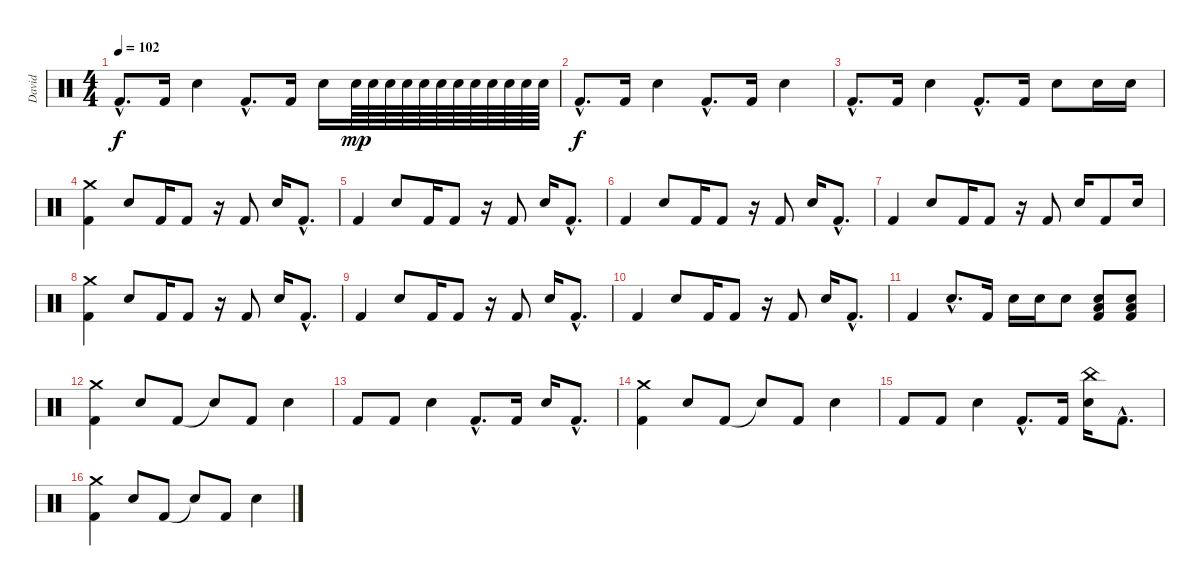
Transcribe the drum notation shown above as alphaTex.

\track ("David" "David") {instrument percussion}
\staff {score}
\articulation defaults
\ts (4 4)
\tempo 102
\clef neutral
\ks c "Kick (hit) 2"{hac}.8{d dy f} "Kick (hit) 2".16 "Snare (hit) 2".4 "Kick (hit) 2"{hac}.8{d} "Kick (hit) 2".16 "Snare (hit) 2".16 "Snare (hit) 2".64{dy mp} "Snare (hit) 2".64 "Snare (hit) 2".64 "Snare (hit) 2".64 "Snare (hit) 2".64 "Snare (hit) 2".64 "Snare (hit) 2".64 "Snare (hit) 2".64 "Snare (hit) 2".64 "Snare (hit) 2".64 "Snare (hit) 2".64 "Snare (hit) 2".64
|
"Kick (hit) 2"{hac}.8{d dy f} "Kick (hit) 2".16 "Snare (hit) 2".4 "Kick (hit) 2"{hac}.8{d} "Kick (hit) 2".16 "Snare (hit) 2".4 |
"Kick (hit) 2"{hac}.8{d} "Kick (hit) 2".16 "Snare (hit) 2".4 "Kick (hit) 2"{hac}.8{d} "Kick (hit) 2".16 "Snare (hit) 2".8 "Snare (hit) 2".16 "Snare (hit) 2".16 |
("Crash medium (hit)" "Kick (hit) 2").4 "Snare (hit) 2".8 "Kick (hit) 2".16 "Kick (hit) 2".8 r.16 "Kick (hit) 2".8 "Snare (hit) 2".16 "Kick (hit) 2"{hac}.8{d} |
"Kick (hit) 2".4 "Snare (hit) 2".8 "Kick (hit) 2".16 "Kick (hit) 2".8 r.16 "Kick (hit) 2".8 "Snare (hit) 2".16 "Kick (hit) 2"{hac}.8{d} |
"Kick (hit) 2".4 "Snare (hit) 2".8 "Kick (hit) 2".16 "Kick (hit) 2".8 r.16 "Kick (hit) 2".8 "Snare (hit) 2".16 "Kick (hit) 2"{hac}.8{d} |
"Kick (hit) 2".4 "Snare (hit) 2".8 "Kick (hit) 2".16 "Kick (hit) 2".8 r.16 "Kick (hit) 2".8 "Snare (hit) 2".16 "Kick (hit) 2".8 "Snare (hit) 2".16 |
("Crash medium (hit)" "Kick (hit) 2").4 "Snare (hit) 2".8 "Kick (hit) 2".16 "Kick (hit) 2".8 r.16 "Kick (hit) 2".8 "Snare (hit) 2".16 "Kick (hit) 2"{hac}.8{d} |
"Kick (hit) 2".4 "Snare (hit) 2".8 "Kick (hit) 2".16 "Kick (hit) 2".8 r.16 "Kick (hit) 2".8 "Snare (hit) 2".16 "Kick (hit) 2"{hac}.8{d} |
"Kick (hit) 2".4 "Snare (hit) 2".8 "Kick (hit) 2".16 "Kick (hit) 2".8 r.16 "Kick (hit) 2".8 "Snare (hit) 2".16 "Kick (hit) 2"{hac}.8{d} |
"Kick (hit) 2".4 "Snare (hit) 2"{hac}.8{d} "Kick (hit) 2".16 "Snare (hit) 2".16 "Snare (hit) 2".16 "Snare (hit) 2".8 ("Snare (hit) 2" "Low Floor Tom (hit)" "Kick (hit) 2").8 ("Snare (hit) 2" "Low Floor Tom (hit)" "Kick (hit) 2").8 |
("Crash medium (hit)" "Kick (hit) 2").4 "Snare (hit) 2".8 "Kick (hit) 2".8 "Snare (hit)"{t}.8 "Kick (hit) 2".8 "Snare (hit) 2".4 |
"Kick (hit) 2".8 "Kick (hit) 2".8 "Snare (hit) 2".4 "Kick (hit) 2"{hac}.8{d} "Kick (hit) 2".16 "Snare (hit) 2".16 "Kick (hit) 2"{hac}.8{d} |
("Crash medium (hit)" "Kick (hit) 2").4 "Snare (hit) 2".8 "Kick (hit) 2".8 "Snare (hit)"{t}.8 "Kick (hit) 2".8 "Snare (hit) 2".4 |
"Kick (hit) 2".8 "Kick (hit) 2".8 "Snare (hit) 2".4 "Kick (hit) 2"{hac}.8{d} "Kick (hit) 2".16 ("China (hit)" "Snare (hit) 2").16 "Kick (hit) 2"{hac}.8{d} |
("Crash medium (hit)" "Kick (hit) 2").4 "Snare (hit) 2".8 "Kick (hit) 2".8 "Snare (hit)"{t}.8 "Kick (hit) 2".8 "Snare (hit) 2".4
